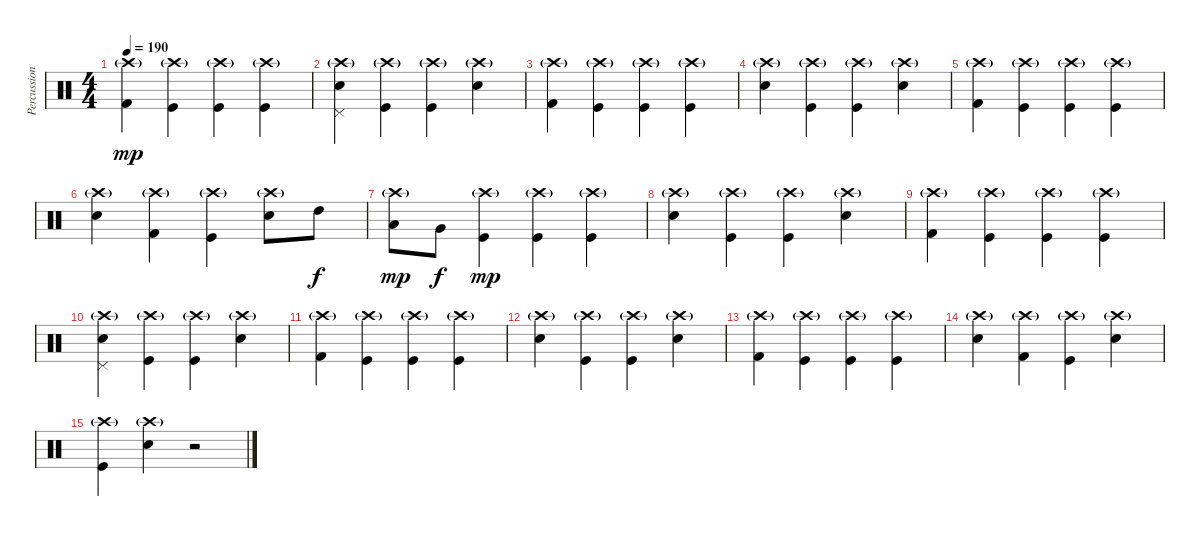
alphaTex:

\track ("Percussion" "Percussion") {instrument percussion}
\staff {score}
\articulation defaults
\ts (4 4)
\tempo 190
\clef neutral
\ks c
("Kick (hit) 2" "Crash high (hit)"{g}).4{dy mp} ("Kick (hit)" "Crash high (hit)"{g}).4 ("Kick (hit)" "Crash high (hit)"{g}).4 ("Kick (hit)" "Crash high (hit)"{g}).4 |
("Snare (hit) 2" "Pedal Hi-Hat (hit)" "Crash high (hit)"{g}).4 ("Kick (hit)" "Crash high (hit)"{g}).4 ("Kick (hit)" "Crash high (hit)"{g}).4 ("Snare (hit) 2" "Crash high (hit)"{g}).4 |
("Kick (hit) 2" "Crash high (hit)"{g}).4 ("Kick (hit)" "Crash high (hit)"{g}).4 ("Kick (hit)" "Crash high (hit)"{g}).4 ("Kick (hit)" "Crash high (hit)"{g}).4 |
("Snare (hit) 2" "Crash high (hit)"{g}).4 ("Kick (hit)" "Crash high (hit)"{g}).4 ("Kick (hit)" "Crash high (hit)"{g}).4 ("Snare (hit) 2" "Crash high (hit)"{g}).4 |
("Kick (hit) 2" "Crash high (hit)"{g}).4 ("Kick (hit)" "Crash high (hit)"{g}).4 ("Kick (hit)" "Crash high (hit)"{g}).4 ("Kick (hit)" "Crash high (hit)"{g}).4 |
("Snare (hit) 2" "Crash high (hit)"{g}).4 ("Kick (hit) 2" "Crash high (hit)"{g}).4 ("Kick (hit)" "Crash high (hit)"{g}).4 ("Snare (hit) 2" "Crash high (hit)"{g}).8 "High Tom (hit)".8{dy f} |
("Low Tom (hit)" "Crash high (hit)"{g}).8{dy mp} "Very Low Tom (hit)".8{dy f} ("Kick (hit)" "Crash high (hit)"{g}).4{dy mp} ("Kick (hit)" "Crash high (hit)"{g}).4 ("Kick (hit)" "Crash high (hit)"{g}).4 |
("Snare (hit) 2" "Crash high (hit)"{g}).4 ("Kick (hit)" "Crash high (hit)"{g}).4 ("Kick (hit)" "Crash high (hit)"{g}).4 ("Snare (hit) 2" "Crash high (hit)"{g}).4 |
("Kick (hit) 2" "Crash high (hit)"{g}).4 ("Kick (hit)" "Crash high (hit)"{g}).4 ("Kick (hit)" "Crash high (hit)"{g}).4 ("Kick (hit)" "Crash high (hit)"{g}).4 |
("Snare (hit) 2" "Pedal Hi-Hat (hit)" "Crash high (hit)"{g}).4 ("Kick (hit)" "Crash high (hit)"{g}).4 ("Kick (hit)" "Crash high (hit)"{g}).4 ("Snare (hit) 2" "Crash high (hit)"{g}).4 |
("Kick (hit) 2" "Crash high (hit)"{g}).4 ("Kick (hit)" "Crash high (hit)"{g}).4 ("Kick (hit)" "Crash high (hit)"{g}).4 ("Kick (hit)" "Crash high (hit)"{g}).4 |
("Snare (hit) 2" "Crash high (hit)"{g}).4 ("Kick (hit)" "Crash high (hit)"{g}).4 ("Kick (hit)" "Crash high (hit)"{g}).4 ("Snare (hit) 2" "Crash high (hit)"{g}).4 |
("Kick (hit) 2" "Crash high (hit)"{g}).4 ("Kick (hit)" "Crash high (hit)"{g}).4 ("Kick (hit)" "Crash high (hit)"{g}).4 ("Kick (hit)" "Crash high (hit)"{g}).4 |
("Snare (hit) 2" "Crash high (hit)"{g}).4 ("Kick (hit) 2" "Crash high (hit)"{g}).4 ("Kick (hit)" "Crash high (hit)"{g}).4 ("Snare (hit) 2" "Crash high (hit)"{g}).4 |
("Kick (hit)" "Crash high (hit)"{g}).4 ("Electric Snare (hit)" "Crash high (hit)"{g}).4 r.2
